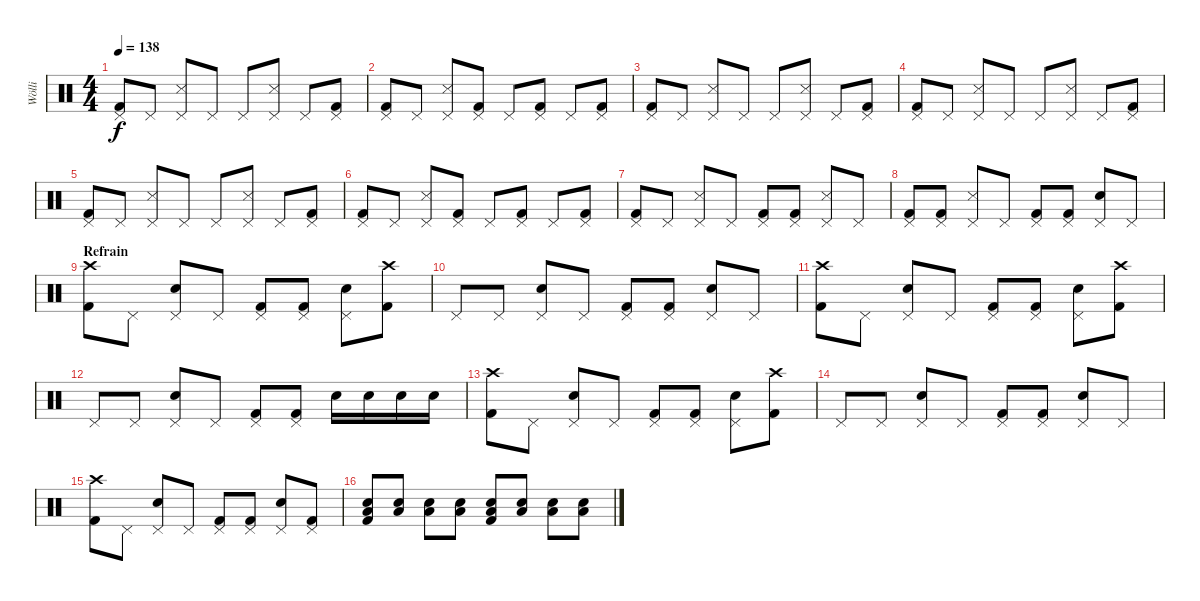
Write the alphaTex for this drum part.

\track ("Wölli" "Wölli") {instrument percussion}
\staff {score}
\articulation defaults
\ts (4 4)
\tempo 138
\clef neutral
\ks c
("Pedal Hi-Hat (hit)" "Kick (hit) 2").8{dy f} "Pedal Hi-Hat (hit)".8 ("Pedal Hi-Hat (hit)" "Snare (side stick) 3").8 "Pedal Hi-Hat (hit)".8 "Pedal Hi-Hat (hit)".8 ("Pedal Hi-Hat (hit)" "Snare (side stick) 3").8 "Pedal Hi-Hat (hit)".8 ("Pedal Hi-Hat (hit)" "Kick (hit) 2").8 |
("Pedal Hi-Hat (hit)" "Kick (hit) 2").8 "Pedal Hi-Hat (hit)".8 ("Pedal Hi-Hat (hit)" "Snare (side stick) 3").8 ("Pedal Hi-Hat (hit)" "Kick (hit) 2").8 "Pedal Hi-Hat (hit)".8 ("Pedal Hi-Hat (hit)" "Kick (hit) 2").8 "Pedal Hi-Hat (hit)".8 ("Pedal Hi-Hat (hit)" "Kick (hit) 2").8 |
("Pedal Hi-Hat (hit)" "Kick (hit) 2").8 "Pedal Hi-Hat (hit)".8 ("Pedal Hi-Hat (hit)" "Snare (side stick) 3").8 "Pedal Hi-Hat (hit)".8 "Pedal Hi-Hat (hit)".8 ("Pedal Hi-Hat (hit)" "Snare (side stick) 3").8 "Pedal Hi-Hat (hit)".8 ("Pedal Hi-Hat (hit)" "Kick (hit) 2").8 |
("Pedal Hi-Hat (hit)" "Kick (hit) 2").8 "Pedal Hi-Hat (hit)".8 ("Pedal Hi-Hat (hit)" "Snare (side stick) 3").8 "Pedal Hi-Hat (hit)".8 "Pedal Hi-Hat (hit)".8 ("Pedal Hi-Hat (hit)" "Snare (side stick) 3").8 "Pedal Hi-Hat (hit)".8 ("Pedal Hi-Hat (hit)" "Kick (hit) 2").8 |
("Pedal Hi-Hat (hit)" "Kick (hit) 2").8 "Pedal Hi-Hat (hit)".8 ("Pedal Hi-Hat (hit)" "Snare (side stick) 3").8 "Pedal Hi-Hat (hit)".8 "Pedal Hi-Hat (hit)".8 ("Pedal Hi-Hat (hit)" "Snare (side stick) 3").8 "Pedal Hi-Hat (hit)".8 ("Pedal Hi-Hat (hit)" "Kick (hit) 2").8 |
("Pedal Hi-Hat (hit)" "Kick (hit) 2").8 "Pedal Hi-Hat (hit)".8 ("Pedal Hi-Hat (hit)" "Snare (side stick) 3").8 ("Pedal Hi-Hat (hit)" "Kick (hit) 2").8 "Pedal Hi-Hat (hit)".8 ("Pedal Hi-Hat (hit)" "Kick (hit) 2").8 "Pedal Hi-Hat (hit)".8 ("Pedal Hi-Hat (hit)" "Kick (hit) 2").8 |
("Pedal Hi-Hat (hit)" "Kick (hit) 2").8 "Pedal Hi-Hat (hit)".8 ("Pedal Hi-Hat (hit)" "Snare (side stick) 3").8 "Pedal Hi-Hat (hit)".8 ("Pedal Hi-Hat (hit)" "Kick (hit) 2").8 ("Pedal Hi-Hat (hit)" "Kick (hit) 2").8 ("Pedal Hi-Hat (hit)" "Snare (side stick) 3").8 "Pedal Hi-Hat (hit)".8 |
("Pedal Hi-Hat (hit)" "Kick (hit) 2").8 ("Pedal Hi-Hat (hit)" "Kick (hit) 2").8 ("Pedal Hi-Hat (hit)" "Snare (side stick) 3").8 "Pedal Hi-Hat (hit)".8 ("Pedal Hi-Hat (hit)" "Kick (hit) 2").8 ("Pedal Hi-Hat (hit)" "Kick (hit) 2").8 ("Pedal Hi-Hat (hit)" "Snare (hit) 2").8 "Pedal Hi-Hat (hit)".8 |
\section ("" "Refrain")
("Crash high (hit)" "Kick (hit) 2").8 "Pedal Hi-Hat (hit)".8 ("Pedal Hi-Hat (hit)" "Snare (hit) 2").8 "Pedal Hi-Hat (hit)".8 ("Pedal Hi-Hat (hit)" "Kick (hit) 2").8 ("Pedal Hi-Hat (hit)" "Kick (hit) 2").8 ("Pedal Hi-Hat (hit)" "Snare (hit) 2").8 ("Crash high (hit)" "Kick (hit) 2").8 |
"Pedal Hi-Hat (hit)".8 "Pedal Hi-Hat (hit)".8 ("Pedal Hi-Hat (hit)" "Snare (hit) 2").8 "Pedal Hi-Hat (hit)".8 ("Pedal Hi-Hat (hit)" "Kick (hit) 2").8 ("Pedal Hi-Hat (hit)" "Kick (hit) 2").8 ("Pedal Hi-Hat (hit)" "Snare (hit) 2").8 "Pedal Hi-Hat (hit)".8 |
("Crash high (hit)" "Kick (hit) 2").8 "Pedal Hi-Hat (hit)".8 ("Pedal Hi-Hat (hit)" "Snare (hit) 2").8 "Pedal Hi-Hat (hit)".8 ("Pedal Hi-Hat (hit)" "Kick (hit) 2").8 ("Pedal Hi-Hat (hit)" "Kick (hit) 2").8 ("Pedal Hi-Hat (hit)" "Snare (hit) 2").8 ("Crash high (hit)" "Kick (hit) 2").8 |
"Pedal Hi-Hat (hit)".8 "Pedal Hi-Hat (hit)".8 ("Pedal Hi-Hat (hit)" "Snare (hit) 2").8 "Pedal Hi-Hat (hit)".8 ("Pedal Hi-Hat (hit)" "Kick (hit) 2").8 ("Pedal Hi-Hat (hit)" "Kick (hit) 2").8 "Snare (hit) 2".16 "Snare (hit) 2".16 "Snare (hit) 2".16 "Snare (hit) 2".16 |
("Crash high (hit)" "Kick (hit) 2").8 "Pedal Hi-Hat (hit)".8 ("Pedal Hi-Hat (hit)" "Snare (hit) 2").8 "Pedal Hi-Hat (hit)".8 ("Pedal Hi-Hat (hit)" "Kick (hit) 2").8 ("Pedal Hi-Hat (hit)" "Kick (hit) 2").8 ("Pedal Hi-Hat (hit)" "Snare (hit) 2").8 ("Crash high (hit)" "Kick (hit) 2").8 |
"Pedal Hi-Hat (hit)".8 "Pedal Hi-Hat (hit)".8 ("Pedal Hi-Hat (hit)" "Snare (hit) 2").8 "Pedal Hi-Hat (hit)".8 ("Pedal Hi-Hat (hit)" "Kick (hit) 2").8 ("Pedal Hi-Hat (hit)" "Kick (hit) 2").8 ("Pedal Hi-Hat (hit)" "Snare (hit) 2").8 "Pedal Hi-Hat (hit)".8 |
("Crash high (hit)" "Kick (hit) 2").8 "Pedal Hi-Hat (hit)".8 ("Pedal Hi-Hat (hit)" "Snare (hit) 2").8 "Pedal Hi-Hat (hit)".8 ("Pedal Hi-Hat (hit)" "Kick (hit) 2").8 ("Pedal Hi-Hat (hit)" "Kick (hit) 2").8 ("Pedal Hi-Hat (hit)" "Snare (hit) 2").8 ("Pedal Hi-Hat (hit)" "Kick (hit) 2").8 |
("Low Floor Tom (hit)" "Snare (hit) 2" "Kick (hit) 2").8 ("Low Floor Tom (hit)" "Snare (hit) 2").8 ("Low Floor Tom (hit)" "Snare (hit) 2").8 ("Low Floor Tom (hit)" "Snare (hit) 2").8 ("Low Tom (hit)" "Snare (hit) 2" "Kick (hit) 2").8 ("Low Tom (hit)" "Snare (hit) 2").8 ("Low Tom (hit)" "Snare (hit) 2").8 ("Low Tom (hit)" "Snare (hit) 2").8
